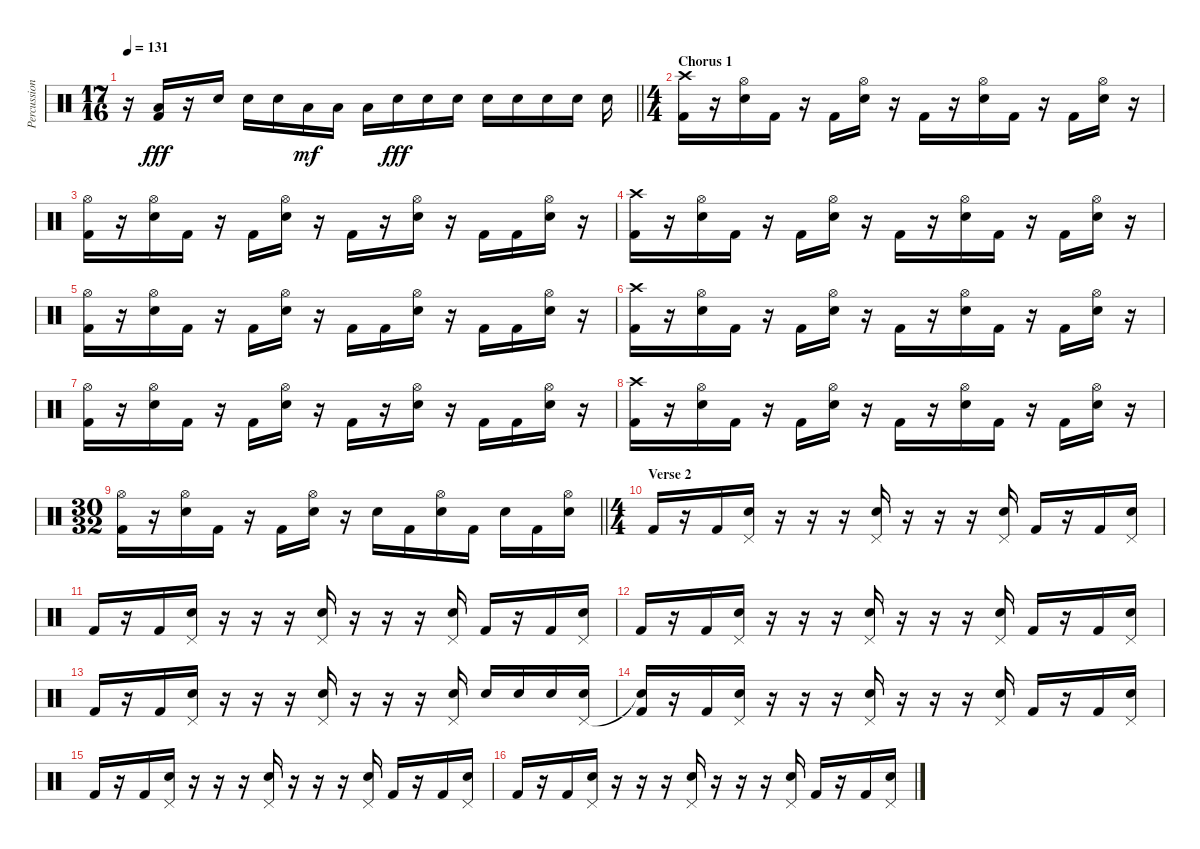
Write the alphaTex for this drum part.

\track ("Percussion" "Percussion") {instrument percussion}
\staff {score}
\articulation defaults
\ts (17 16)
\tempo 131
\clef neutral
\barLineRight lightlight
\ks c
r.16{dy fff} ("Low Tom (hit)" "Kick (hit) 2").16 r.16 "Snare (hit) 2".16 "Snare (hit) 2".16 "Snare (hit) 2".16 "Low Tom (hit)".16{dy mf} "Low Tom (hit)".16 "Low Tom (hit)".16 "Snare (hit) 2".16{dy fff} "Snare (hit) 2".16 "Snare (hit) 2".16 "Snare (hit) 2".16 "Snare (hit) 2".16 "Snare (hit) 2".16 "Snare (hit) 2".16 "Snare (hit) 2".16 |
\ts (4 4)
\section ("" "Chorus 1")
("Crash high (hit)" "Kick (hit) 2").16 r.16 ("Hi-Hat (open)" "Snare (hit) 2").16 "Kick (hit) 2".16 r.16 "Kick (hit) 2".16 ("Hi-Hat (open)" "Snare (hit) 2").16 r.16 "Kick (hit) 2".16 r.16 ("Hi-Hat (open)" "Snare (hit) 2").16 "Kick (hit) 2".16 r.16 "Kick (hit) 2".16 ("Hi-Hat (open)" "Snare (hit) 2").16 r.16 |
("Hi-Hat (open)" "Kick (hit) 2").16 r.16 ("Hi-Hat (open)" "Snare (hit) 2").16 "Kick (hit) 2".16 r.16 "Kick (hit) 2".16 ("Hi-Hat (open)" "Snare (hit) 2").16 r.16 "Kick (hit) 2".16 r.16 ("Hi-Hat (open)" "Snare (hit) 2").16 r.16 "Kick (hit) 2".16 "Kick (hit) 2".16 ("Hi-Hat (open)" "Snare (hit) 2").16 r.16 |
("Crash high (hit)" "Kick (hit) 2").16 r.16 ("Hi-Hat (open)" "Snare (hit) 2").16 "Kick (hit) 2".16 r.16 "Kick (hit) 2".16 ("Hi-Hat (open)" "Snare (hit) 2").16 r.16 "Kick (hit) 2".16 r.16 ("Hi-Hat (open)" "Snare (hit) 2").16 "Kick (hit) 2".16 r.16 "Kick (hit) 2".16 ("Hi-Hat (open)" "Snare (hit) 2").16 r.16 |
("Hi-Hat (open)" "Kick (hit) 2").16 r.16 ("Hi-Hat (open)" "Snare (hit) 2").16 "Kick (hit) 2".16 r.16 "Kick (hit) 2".16 ("Hi-Hat (open)" "Snare (hit) 2").16 r.16 "Kick (hit) 2".16 "Kick (hit) 2".16 ("Hi-Hat (open)" "Snare (hit) 2").16 r.16 "Kick (hit) 2".16 "Kick (hit) 2".16 ("Hi-Hat (open)" "Snare (hit) 2").16 r.16 |
("Crash high (hit)" "Kick (hit) 2").16 r.16 ("Hi-Hat (open)" "Snare (hit) 2").16 "Kick (hit) 2".16 r.16 "Kick (hit) 2".16 ("Hi-Hat (open)" "Snare (hit) 2").16 r.16 "Kick (hit) 2".16 r.16 ("Hi-Hat (open)" "Snare (hit) 2").16 "Kick (hit) 2".16 r.16 "Kick (hit) 2".16 ("Hi-Hat (open)" "Snare (hit) 2").16 r.16 |
("Hi-Hat (open)" "Kick (hit) 2").16 r.16 ("Hi-Hat (open)" "Snare (hit) 2").16 "Kick (hit) 2".16 r.16 "Kick (hit) 2".16 ("Hi-Hat (open)" "Snare (hit) 2").16 r.16 "Kick (hit) 2".16 r.16 ("Hi-Hat (open)" "Snare (hit) 2").16 r.16 "Kick (hit) 2".16 "Kick (hit) 2".16 ("Hi-Hat (open)" "Snare (hit) 2").16 r.16 |
("Crash high (hit)" "Kick (hit) 2").16 r.16 ("Hi-Hat (open)" "Snare (hit) 2").16 "Kick (hit) 2".16 r.16 "Kick (hit) 2".16 ("Hi-Hat (open)" "Snare (hit) 2").16 r.16 "Kick (hit) 2".16 r.16 ("Hi-Hat (open)" "Snare (hit) 2").16 "Kick (hit) 2".16 r.16 "Kick (hit) 2".16 ("Hi-Hat (open)" "Snare (hit) 2").16 r.16 |
\ts (30 32)
\barLineRight lightlight
("Hi-Hat (open)" "Kick (hit) 2").16 r.16 ("Hi-Hat (open)" "Snare (hit) 2").16 "Kick (hit) 2".16 r.16 "Kick (hit) 2".16 ("Hi-Hat (open)" "Snare (hit) 2").16 r.16 "Snare (hit) 2".16 "Kick (hit) 2".16 ("Hi-Hat (open)" "Snare (hit) 2").16 "Kick (hit) 2".16 "Snare (hit) 2".16 "Kick (hit) 2".16 ("Hi-Hat (open)" "Snare (hit) 2").16 |
\ts (4 4)
\section ("" "Verse 2")
"Kick (hit) 2".16 r.16 "Kick (hit) 2".16 ("Pedal Hi-Hat (hit)" "Snare (hit) 2").16 r.16 r.16 r.16 ("Pedal Hi-Hat (hit)" "Snare (hit) 2").16 r.16 r.16 r.16 ("Pedal Hi-Hat (hit)" "Snare (hit) 2").16 "Kick (hit) 2".16 r.16 "Kick (hit) 2".16 ("Pedal Hi-Hat (hit)" "Snare (hit) 2").16 |
"Kick (hit) 2".16 r.16 "Kick (hit) 2".16 ("Pedal Hi-Hat (hit)" "Snare (hit) 2").16 r.16 r.16 r.16 ("Pedal Hi-Hat (hit)" "Snare (hit) 2").16 r.16 r.16 r.16 ("Pedal Hi-Hat (hit)" "Snare (hit) 2").16 "Kick (hit) 2".16 r.16 "Kick (hit) 2".16 ("Pedal Hi-Hat (hit)" "Snare (hit) 2").16 |
"Kick (hit) 2".16 r.16 "Kick (hit) 2".16 ("Pedal Hi-Hat (hit)" "Snare (hit) 2").16 r.16 r.16 r.16 ("Pedal Hi-Hat (hit)" "Snare (hit) 2").16 r.16 r.16 r.16 ("Pedal Hi-Hat (hit)" "Snare (hit) 2").16 "Kick (hit) 2".16 r.16 "Kick (hit) 2".16 ("Pedal Hi-Hat (hit)" "Snare (hit) 2").16 |
"Kick (hit) 2".16 r.16 "Kick (hit) 2".16 ("Pedal Hi-Hat (hit)" "Snare (hit) 2").16 r.16 r.16 r.16 ("Pedal Hi-Hat (hit)" "Snare (hit) 2").16 r.16 r.16 r.16 ("Pedal Hi-Hat (hit)" "Snare (hit) 2").16 "Snare (hit) 2".16 "Snare (hit) 2".16 "Snare (hit) 2".16 ("Pedal Hi-Hat (hit)" "Snare (hit) 2").16 |
("Snare (hit)"{t} "Kick (hit) 2").16 r.16 "Kick (hit) 2".16 ("Pedal Hi-Hat (hit)" "Snare (hit) 2").16 r.16 r.16 r.16 ("Pedal Hi-Hat (hit)" "Snare (hit) 2").16 r.16 r.16 r.16 ("Pedal Hi-Hat (hit)" "Snare (hit) 2").16 "Kick (hit) 2".16 r.16 "Kick (hit) 2".16 ("Pedal Hi-Hat (hit)" "Snare (hit) 2").16 |
"Kick (hit) 2".16 r.16 "Kick (hit) 2".16 ("Pedal Hi-Hat (hit)" "Snare (hit) 2").16 r.16 r.16 r.16 ("Pedal Hi-Hat (hit)" "Snare (hit) 2").16 r.16 r.16 r.16 ("Pedal Hi-Hat (hit)" "Snare (hit) 2").16 "Kick (hit) 2".16 r.16 "Kick (hit) 2".16 ("Pedal Hi-Hat (hit)" "Snare (hit) 2").16 |
"Kick (hit) 2".16 r.16 "Kick (hit) 2".16 ("Pedal Hi-Hat (hit)" "Snare (hit) 2").16 r.16 r.16 r.16 ("Pedal Hi-Hat (hit)" "Snare (hit) 2").16 r.16 r.16 r.16 ("Pedal Hi-Hat (hit)" "Snare (hit) 2").16 "Kick (hit) 2".16 r.16 "Kick (hit) 2".16 ("Pedal Hi-Hat (hit)" "Snare (hit) 2").16
